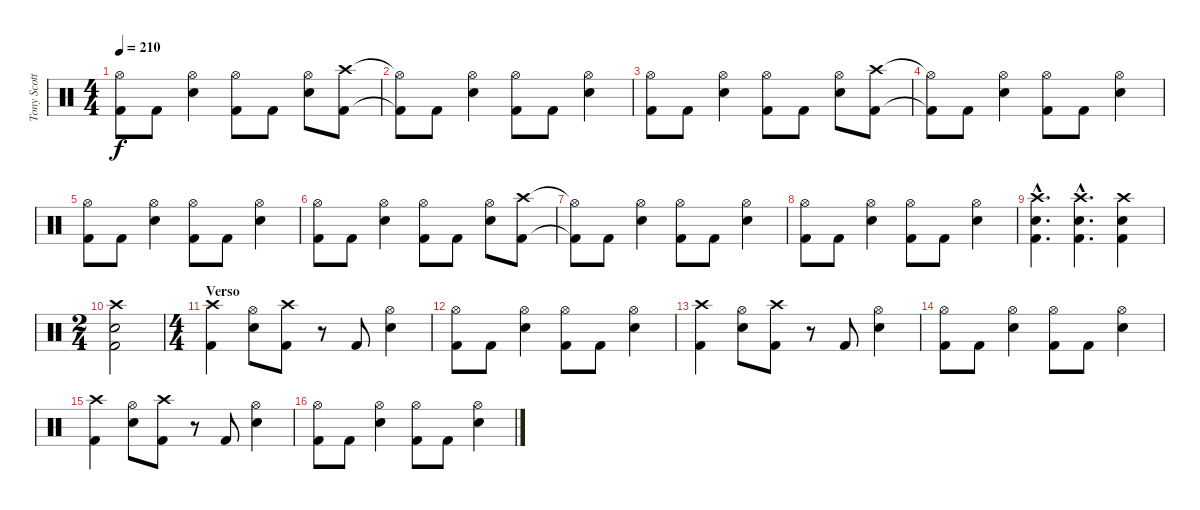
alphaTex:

\track ("Tony Scotto" "Tony Scott") {instrument percussion}
\staff {score}
\articulation defaults
\ts (4 4)
\tempo 210
\clef neutral
\ks c
("Hi-Hat (open)" "Kick (hit) 2").8{dy f} "Kick (hit) 2".8 ("Hi-Hat (open)" "Snare (hit) 2").4 ("Hi-Hat (open)" "Kick (hit) 2").8 "Kick (hit) 2".8 ("Hi-Hat (open)" "Snare (hit) 2").8 ("Crash high (hit)" "Kick (hit) 2").8 |
("Hi-Hat (open)"{t} "Kick (hit) 2"{t}).8 "Kick (hit) 2".8 ("Hi-Hat (open)" "Snare (hit) 2").4 ("Hi-Hat (open)" "Kick (hit) 2").8 "Kick (hit) 2".8 ("Hi-Hat (open)" "Snare (hit) 2").4 |
("Hi-Hat (open)" "Kick (hit) 2").8 "Kick (hit) 2".8 ("Hi-Hat (open)" "Snare (hit) 2").4 ("Hi-Hat (open)" "Kick (hit) 2").8 "Kick (hit) 2".8 ("Hi-Hat (open)" "Snare (hit) 2").8 ("Crash high (hit)" "Kick (hit) 2").8 |
("Hi-Hat (open)"{t} "Kick (hit) 2"{t}).8 "Kick (hit) 2".8 ("Hi-Hat (open)" "Snare (hit) 2").4 ("Hi-Hat (open)" "Kick (hit) 2").8 "Kick (hit) 2".8 ("Hi-Hat (open)" "Snare (hit) 2").4 |
("Hi-Hat (open)" "Kick (hit) 2").8 "Kick (hit) 2".8 ("Hi-Hat (open)" "Snare (hit) 2").4 ("Hi-Hat (open)" "Kick (hit) 2").8 "Kick (hit) 2".8 ("Hi-Hat (open)" "Snare (hit) 2").4 |
("Hi-Hat (open)" "Kick (hit) 2").8 "Kick (hit) 2".8 ("Hi-Hat (open)" "Snare (hit) 2").4 ("Hi-Hat (open)" "Kick (hit) 2").8 "Kick (hit) 2".8 ("Hi-Hat (open)" "Snare (hit) 2").8 ("Crash high (hit)" "Kick (hit) 2").8 |
("Hi-Hat (open)"{t} "Kick (hit) 2"{t}).8 "Kick (hit) 2".8 ("Hi-Hat (open)" "Snare (hit) 2").4 ("Hi-Hat (open)" "Kick (hit) 2").8 "Kick (hit) 2".8 ("Hi-Hat (open)" "Snare (hit) 2").4 |
("Hi-Hat (open)" "Kick (hit) 2").8 "Kick (hit) 2".8 ("Hi-Hat (open)" "Snare (hit) 2").4 ("Hi-Hat (open)" "Kick (hit) 2").8 "Kick (hit) 2".8 ("Hi-Hat (open)" "Snare (hit) 2").4 |
("Crash high (hit)"{hac} "Snare (hit) 2"{hac} "Kick (hit) 2"{hac}).4{d} ("Crash high (hit)"{hac} "Snare (hit) 2"{hac} "Kick (hit) 2"{hac}).4{d} ("Crash high (hit)" "Snare (hit) 2" "Kick (hit) 2").4 |
\ts (2 4)
("Crash high (hit)" "Snare (hit) 2" "Kick (hit) 2").2 |
\ts (4 4)
\section ("" "Verso")
("Crash high (hit)" "Kick (hit) 2").4 ("Hi-Hat (open)" "Snare (hit) 2").8 ("Crash high (hit)" "Kick (hit) 2").8 r.8 "Kick (hit) 2".8 ("Hi-Hat (open)" "Snare (hit) 2").4 |
("Hi-Hat (open)" "Kick (hit) 2").8 "Kick (hit) 2".8 ("Hi-Hat (open)" "Snare (hit) 2").4 ("Hi-Hat (open)" "Kick (hit) 2").8 "Kick (hit) 2".8 ("Hi-Hat (open)" "Snare (hit) 2").4 |
("Crash high (hit)" "Kick (hit) 2").4 ("Hi-Hat (open)" "Snare (hit) 2").8 ("Crash high (hit)" "Kick (hit) 2").8 r.8 "Kick (hit) 2".8 ("Hi-Hat (open)" "Snare (hit) 2").4 |
("Hi-Hat (open)" "Kick (hit) 2").8 "Kick (hit) 2".8 ("Hi-Hat (open)" "Snare (hit) 2").4 ("Hi-Hat (open)" "Kick (hit) 2").8 "Kick (hit) 2".8 ("Hi-Hat (open)" "Snare (hit) 2").4 |
("Crash high (hit)" "Kick (hit) 2").4 ("Hi-Hat (open)" "Snare (hit) 2").8 ("Crash high (hit)" "Kick (hit) 2").8 r.8 "Kick (hit) 2".8 ("Hi-Hat (open)" "Snare (hit) 2").4 |
("Hi-Hat (open)" "Kick (hit) 2").8 "Kick (hit) 2".8 ("Hi-Hat (open)" "Snare (hit) 2").4 ("Hi-Hat (open)" "Kick (hit) 2").8 "Kick (hit) 2".8 ("Hi-Hat (open)" "Snare (hit) 2").4
